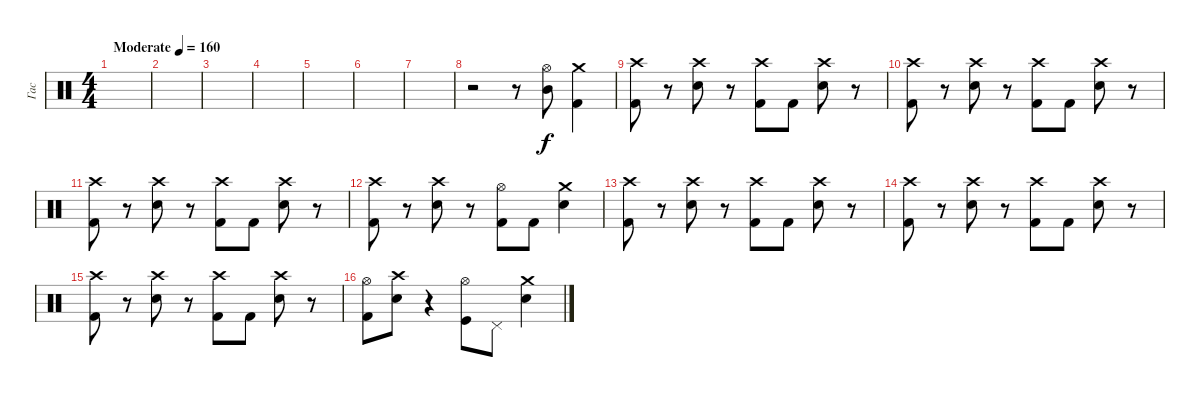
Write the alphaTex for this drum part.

\track ("Гас" "Гас") {instrument percussion}
\staff {score}
\articulation defaults
\ts (4 4)
\tempo (160 "Moderate")
\clef neutral
\ks c
|
|
|
|
|
|
|
r.2 r.8 ("Hi-Hat (open)" "Mid Tom (hit)").8 ("Crash medium (hit)" "Kick (hit) 2").4 |
("Crash high (hit)" "Kick (hit) 2").8 r.8 ("Crash high (hit)" "Electric Snare (hit)").8 r.8 ("Crash high (hit)" "Kick (hit) 2").8 "Kick (hit) 2".8 ("Crash high (hit)" "Electric Snare (hit)").8 r.8 |
("Crash high (hit)" "Kick (hit) 2").8 r.8 ("Crash high (hit)" "Electric Snare (hit)").8 r.8 ("Crash high (hit)" "Kick (hit) 2").8 "Kick (hit) 2".8 ("Crash high (hit)" "Electric Snare (hit)").8 r.8 |
("Crash high (hit)" "Kick (hit) 2").8 r.8 ("Crash high (hit)" "Electric Snare (hit)").8 r.8 ("Crash high (hit)" "Kick (hit) 2").8 "Kick (hit) 2".8 ("Crash high (hit)" "Electric Snare (hit)").8 r.8 |
("Crash high (hit)" "Kick (hit) 2").8 r.8 ("Crash high (hit)" "Electric Snare (hit)").8 r.8 ("Hi-Hat (open)" "Kick (hit) 2").8 "Kick (hit) 2".8 ("Crash medium (hit)" "Electric Snare (hit)").4 |
("Crash high (hit)" "Kick (hit) 2").8 r.8 ("Crash high (hit)" "Electric Snare (hit)").8 r.8 ("Crash high (hit)" "Kick (hit) 2").8 "Kick (hit) 2".8 ("Crash high (hit)" "Electric Snare (hit)").8 r.8 |
("Crash high (hit)" "Kick (hit) 2").8 r.8 ("Crash high (hit)" "Electric Snare (hit)").8 r.8 ("Crash high (hit)" "Kick (hit) 2").8 "Kick (hit) 2".8 ("Crash high (hit)" "Electric Snare (hit)").8 r.8 |
("Crash high (hit)" "Kick (hit) 2").8 r.8 ("Crash high (hit)" "Electric Snare (hit)").8 r.8 ("Crash high (hit)" "Kick (hit) 2").8 "Kick (hit) 2".8 ("Crash high (hit)" "Electric Snare (hit)").8 r.8 |
("Hi-Hat (open)" "Kick (hit) 2").8 ("Crash high (hit)" "Electric Snare (hit)").8 r.4 ("Hi-Hat (open)" "Kick (hit)").8 "Pedal Hi-Hat (hit)".8 ("Crash medium (hit)" "Electric Snare (hit)").4
